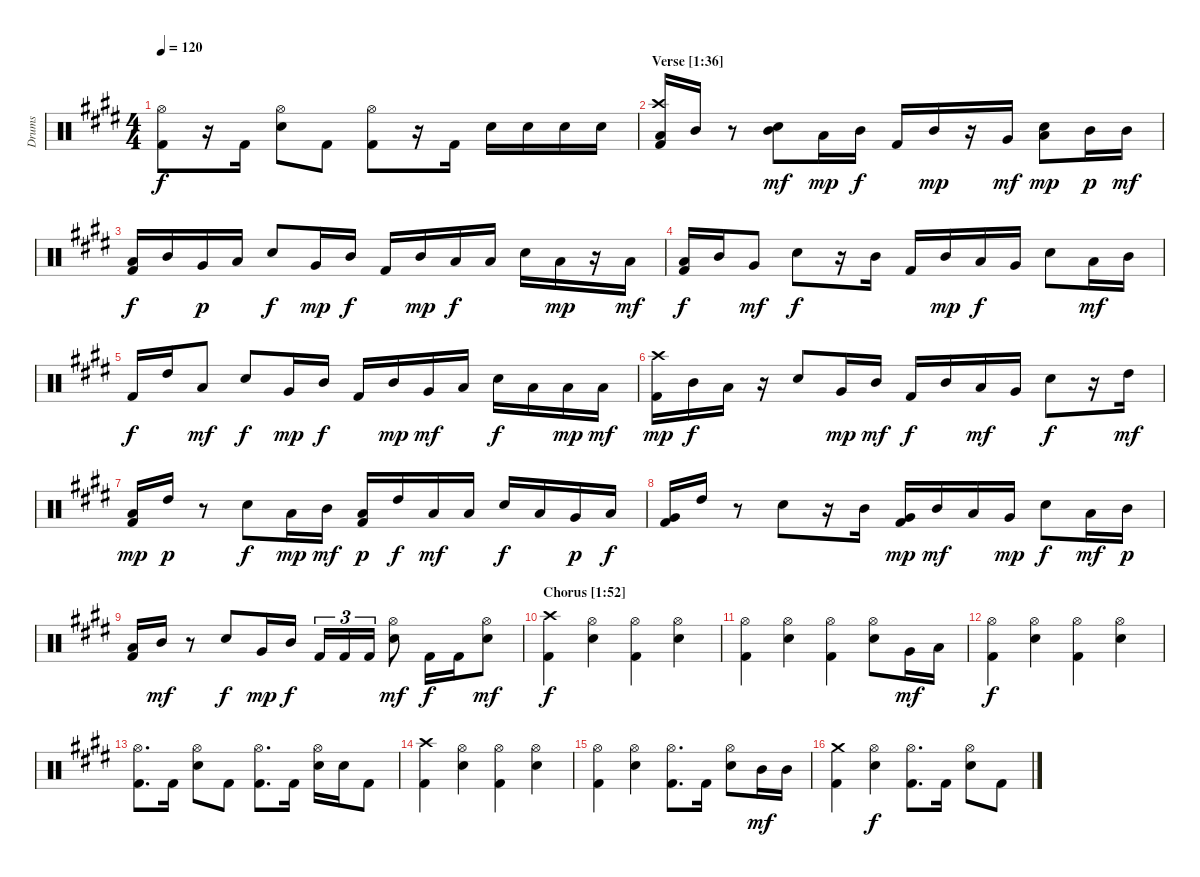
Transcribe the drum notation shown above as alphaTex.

\track ("Drums" "Drums") {instrument percussion}
\staff {score}
\articulation defaults
\ts (4 4)
\tempo 120
\clef neutral
\ks c#minor
("Hi-Hat (open)" "Kick (hit) 2").8{dy f} r.16 "Kick (hit) 2".16 ("Hi-Hat (open)" "Snare (hit) 2").8 "Kick (hit) 2".8 ("Hi-Hat (open)" "Kick (hit) 2").8 r.16 "Kick (hit) 2".16 "Snare (hit) 2".16 "Snare (hit) 2".16 "Snare (hit) 2".16 "Snare (hit) 2".16 |
\section ("" "Verse [1:36]")
("Crash high (hit)" "Low Floor Tom (hit)" "Kick (hit) 2").16 "Mid Tom (hit)".16 r.8 ("Mid Tom (hit)" "Snare (hit) 2").8{dy mf} "Low Floor Tom (hit)".16{dy mp} "Mid Tom (hit)".16{dy f} "Kick (hit) 2".16 "Mid Tom (hit)".16{dy mp} r.16 "Very Low Tom (hit)".16{dy mf} ("Low Floor Tom (hit)" "Snare (hit) 2").8{dy mp} "Mid Tom (hit)".16{dy p} "Mid Tom (hit)".16{dy mf} |
("Low Floor Tom (hit)" "Kick (hit) 2").16{dy f} "Mid Tom (hit)".16 "Very Low Tom (hit)".16{dy p} "Low Floor Tom (hit)".16 "Snare (hit) 2".8{dy f} "Very Low Tom (hit)".16{dy mp} "Mid Tom (hit)".16{dy f} "Kick (hit) 2".16 "Mid Tom (hit)".16{dy mp} "Low Tom (hit)".16{dy f} "Low Floor Tom (hit)".16 "Snare (hit) 2".16 "Low Floor Tom (hit)".16{dy mp} r.16 "Low Floor Tom (hit)".16{dy mf} |
("Low Floor Tom (hit)" "Kick (hit) 2").16{dy f} "Mid Tom (hit)".16 "Very Low Tom (hit)".8{dy mf} "Snare (hit) 2".8{dy f} r.16 "Mid Tom (hit)".16 "Kick (hit) 2".16 "Mid Tom (hit)".16{dy mp} "Low Tom (hit)".16{dy f} "Very Low Tom (hit)".16 "Snare (hit) 2".8 "Low Tom (hit)".16{dy mf} "Mid Tom (hit)".16 |
"Kick (hit) 2".16{dy f} "High Tom (hit)".16 "Low Tom (hit)".8{dy mf} "Snare (hit) 2".8{dy f} "Very Low Tom (hit)".16{dy mp} "Mid Tom (hit)".16{dy f} "Kick (hit) 2".16 "Mid Tom (hit)".16{dy mp} "Very Low Tom (hit)".16{dy mf} "Low Floor Tom (hit)".16 "Snare (hit) 2".16{dy f} "Low Floor Tom (hit)".16 "Low Tom (hit)".16{dy mp} "Low Floor Tom (hit)".16{dy mf} |
("Crash high (hit)" "Kick (hit) 2").16{dy mp} "Mid Tom (hit)".16{dy f} "Low Tom (hit)".16 r.16 "Snare (hit) 2".8 "Very Low Tom (hit)".16{dy mp} "Mid Tom (hit)".16{dy mf} "Kick (hit) 2".16{dy f} "Mid Tom (hit)".16 "Low Tom (hit)".16{dy mf} "Very Low Tom (hit)".16 "Snare (hit) 2".8{dy f} r.16 "High Tom (hit)".16{dy mf} |
("Low Tom (hit)" "Kick (hit) 2").16{dy mp} "High Tom (hit)".16{dy p} r.8 "Snare (hit) 2".8{dy f} "Low Tom (hit)".16{dy mp} "Mid Tom (hit)".16{dy mf} ("Low Tom (hit)" "Kick (hit) 2").16{dy p} "High Tom (hit)".16{dy f} "Low Tom (hit)".16{dy mf} "Low Floor Tom (hit)".16 "Snare (hit) 2".16{dy f} "Low Floor Tom (hit)".16 "Very Low Tom (hit)".16{dy p} "Low Floor Tom (hit)".16{dy f} |
("Very Low Tom (hit)" "Kick (hit) 2").16 "High Tom (hit)".16 r.8 "Snare (hit) 2".8 r.16 "Mid Tom (hit)".16 ("Very Low Tom (hit)" "Kick (hit) 2").16{dy mp} "Mid Tom (hit)".16{dy mf} "Low Tom (hit)".16 "Very Low Tom (hit)".16{dy mp} "Snare (hit) 2".8{dy f} "Low Floor Tom (hit)".16{dy mf} "Mid Tom (hit)".16{dy p} |
("Low Floor Tom (hit)" "Kick (hit) 2").16 "Mid Tom (hit)".16{dy mf} r.8 "Snare (hit) 2".8{dy f} "Very Low Tom (hit)".16{dy mp} "Mid Tom (hit)".16{dy f} "Kick (hit) 2".16{tu (3 2)} "Kick (hit) 2".16{tu (3 2)} "Kick (hit) 2".16{tu (3 2)} ("Hi-Hat (open)" "Snare (hit) 2").8{dy mf} "Kick (hit) 2".16{dy f} "Kick (hit) 2".16 ("Hi-Hat (open)" "Snare (hit) 2").8{dy mf} |
\section ("" "Chorus [1:52]")
("Crash high (hit)" "Kick (hit) 2").4{dy f} ("Hi-Hat (open)" "Snare (hit) 2").4 ("Hi-Hat (open)" "Kick (hit) 2").4 ("Hi-Hat (open)" "Snare (hit) 2").4 |
("Hi-Hat (open)" "Kick (hit) 2").4 ("Hi-Hat (open)" "Snare (hit) 2").4 ("Hi-Hat (open)" "Kick (hit) 2").4 ("Hi-Hat (open)" "Snare (hit) 2").8 "Very Low Tom (hit)".16{dy mf} "Low Floor Tom (hit)".16 |
("Hi-Hat (open)" "Kick (hit) 2").4{dy f} ("Hi-Hat (open)" "Snare (hit) 2").4 ("Hi-Hat (open)" "Kick (hit) 2").4 ("Hi-Hat (open)" "Snare (hit) 2").4 |
("Hi-Hat (open)" "Kick (hit) 2").8{d} "Kick (hit) 2".16 ("Hi-Hat (open)" "Snare (hit) 2").8 "Kick (hit) 2".8 ("Hi-Hat (open)" "Kick (hit) 2").8{d} "Kick (hit) 2".16 ("Hi-Hat (open)" "Snare (hit) 2").16 "Snare (hit) 2".16 "Kick (hit) 2".8 |
("Crash high (hit)" "Kick (hit) 2").4 ("Hi-Hat (open)" "Snare (hit) 2").4 ("Hi-Hat (open)" "Kick (hit) 2").4 ("Hi-Hat (open)" "Snare (hit) 2").4 |
("Hi-Hat (open)" "Kick (hit) 2").4 ("Hi-Hat (open)" "Snare (hit) 2").4 ("Hi-Hat (open)" "Kick (hit) 2").8{d} "Kick (hit) 2".16 ("Hi-Hat (open)" "Snare (hit) 2").8 "Mid Tom (hit)".16{dy mf} "Mid Tom (hit)".16 |
("Crash medium (hit)" "Kick (hit) 2").4 ("Hi-Hat (open)" "Snare (hit) 2").4{dy f} ("Hi-Hat (open)" "Kick (hit) 2").8{d} "Kick (hit) 2".16 ("Hi-Hat (open)" "Snare (hit) 2").8 "Kick (hit) 2".8
